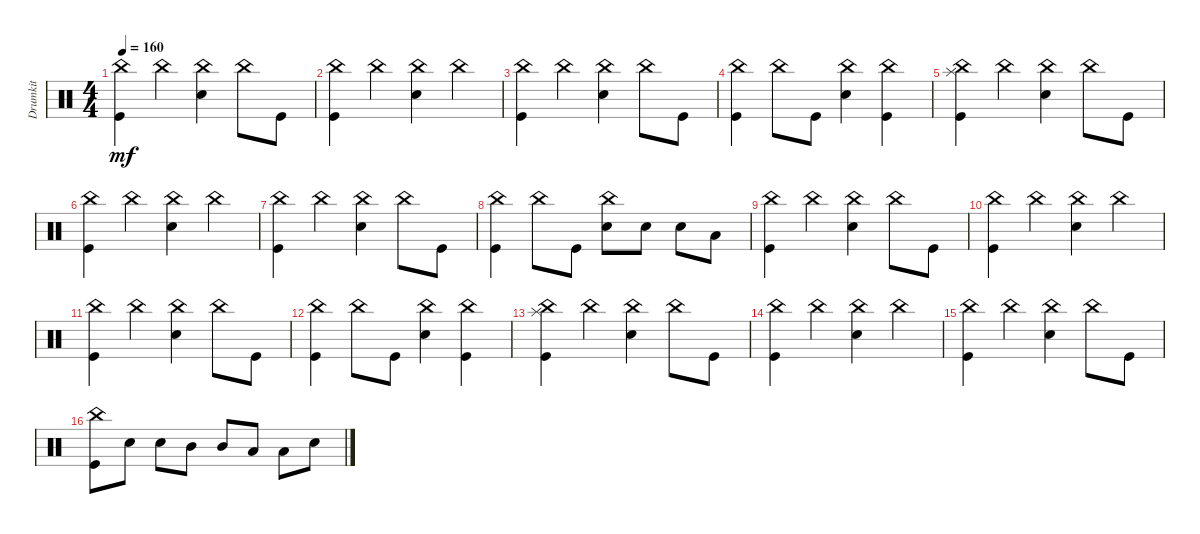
\track ("Drumkit" "Drumkit") {instrument percussion}
\staff {score}
\articulation defaults
\ts (4 4)
\tempo 160
\clef neutral
\ks c
("Kick (hit)" "China (hit)").4{dy mf} "China (hit)".4 ("China (hit)" "Snare (hit) 2").4 "China (hit)".8 "Kick (hit)".8 |
("China (hit)" "Kick (hit)").4 "China (hit)".4 ("China (hit)" "Snare (hit) 2").4 "China (hit)".4 |
("Kick (hit)" "China (hit)").4 "China (hit)".4 ("China (hit)" "Snare (hit) 2").4 "China (hit)".8 "Kick (hit)".8 |
("Kick (hit)" "China (hit)").4 "China (hit)".8 "Kick (hit)".8 ("Snare (hit) 2" "China (hit)").4 ("Kick (hit)" "China (hit)").4 |
("Kick (hit)" "China (hit)" "Splash (hit)").4 "China (hit)".4 ("China (hit)" "Snare (hit) 2").4 "China (hit)".8 "Kick (hit)".8 |
("China (hit)" "Kick (hit)").4 "China (hit)".4 ("China (hit)" "Snare (hit) 2").4 "China (hit)".4 |
("Kick (hit)" "China (hit)").4 "China (hit)".4 ("China (hit)" "Snare (hit) 2").4 "China (hit)".8 "Kick (hit)".8 |
("Kick (hit)" "China (hit)").4 "China (hit)".8 "Kick (hit)".8 ("Snare (hit) 2" "China (hit)").8 "Snare (hit) 2".8 "Snare (hit) 2".8 "Low Tom (hit)".8 |
("Kick (hit)" "China (hit)").4 "China (hit)".4 ("China (hit)" "Snare (hit) 2").4 "China (hit)".8 "Kick (hit)".8 |
("China (hit)" "Kick (hit)").4 "China (hit)".4 ("China (hit)" "Snare (hit) 2").4 "China (hit)".4 |
("Kick (hit)" "China (hit)").4 "China (hit)".4 ("China (hit)" "Snare (hit) 2").4 "China (hit)".8 "Kick (hit)".8 |
("Kick (hit)" "China (hit)").4 "China (hit)".8 "Kick (hit)".8 ("Snare (hit) 2" "China (hit)").4 ("Kick (hit)" "China (hit)").4 |
("Kick (hit)" "China (hit)" "Splash (hit)").4 "China (hit)".4 ("China (hit)" "Snare (hit) 2").4 "China (hit)".8 "Kick (hit)".8 |
("China (hit)" "Kick (hit)").4 "China (hit)".4 ("China (hit)" "Snare (hit) 2").4 "China (hit)".4 |
("Kick (hit)" "China (hit)").4 "China (hit)".4 ("China (hit)" "Snare (hit) 2").4 "China (hit)".8 "Kick (hit)".8 |
("Kick (hit)" "China (hit)").8 "Snare (hit) 2".8 "Snare (hit) 2".8 "Mid Tom (hit)".8 "Mid Tom (hit)".8 "Low Tom (hit)".8 "Low Floor Tom (hit)".8 "Snare (hit) 2".8
